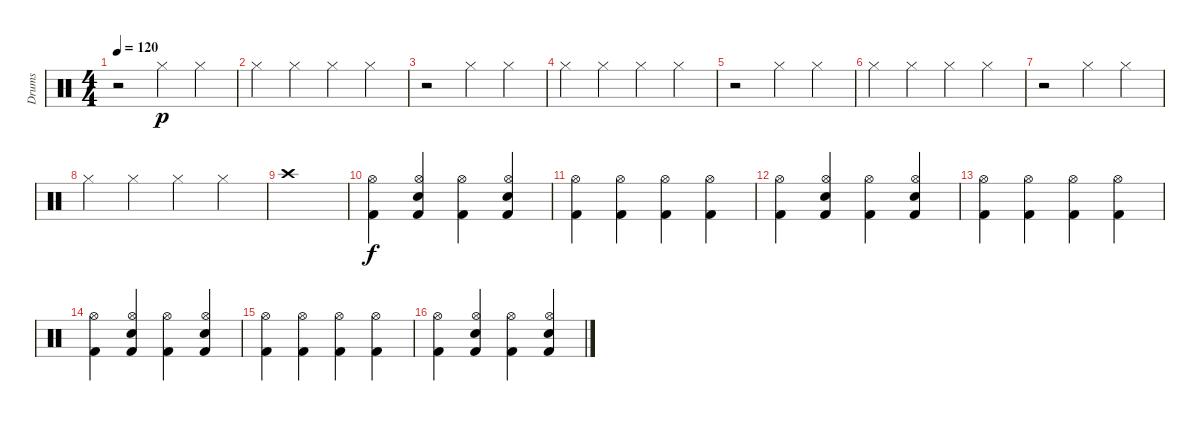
\track ("Drums" "Drums") {instrument percussion}
\staff {score}
\articulation defaults
\ts (4 4)
\tempo 120
\clef neutral
\ks c
r.2{dy p} "Hi-Hat (closed)".4 "Hi-Hat (closed)".4 |
"Hi-Hat (closed)".4 "Hi-Hat (closed)".4 "Hi-Hat (closed)".4 "Hi-Hat (closed)".4 |
r.2 "Hi-Hat (closed)".4 "Hi-Hat (closed)".4 |
"Hi-Hat (closed)".4 "Hi-Hat (closed)".4 "Hi-Hat (closed)".4 "Hi-Hat (closed)".4 |
r.2 "Hi-Hat (closed)".4 "Hi-Hat (closed)".4 |
"Hi-Hat (closed)".4 "Hi-Hat (closed)".4 "Hi-Hat (closed)".4 "Hi-Hat (closed)".4 |
r.2 "Hi-Hat (closed)".4 "Hi-Hat (closed)".4 |
"Hi-Hat (closed)".4 "Hi-Hat (closed)".4 "Hi-Hat (closed)".4 "Hi-Hat (closed)".4 |
"Crash high (hit)".1 |
("Kick (hit) 2" "Hi-Hat (open)").4{dy f} ("Kick (hit) 2" "Hi-Hat (open)" "Electric Snare (hit)").4 ("Kick (hit) 2" "Hi-Hat (open)").4 ("Kick (hit) 2" "Hi-Hat (open)" "Electric Snare (hit)").4 |
("Kick (hit) 2" "Hi-Hat (open)").4 ("Kick (hit) 2" "Hi-Hat (open)").4 ("Kick (hit) 2" "Hi-Hat (open)").4 ("Kick (hit) 2" "Hi-Hat (open)").4 |
("Kick (hit) 2" "Hi-Hat (open)").4 ("Kick (hit) 2" "Hi-Hat (open)" "Electric Snare (hit)").4 ("Kick (hit) 2" "Hi-Hat (open)").4 ("Kick (hit) 2" "Hi-Hat (open)" "Electric Snare (hit)").4 |
("Kick (hit) 2" "Hi-Hat (open)").4 ("Kick (hit) 2" "Hi-Hat (open)").4 ("Kick (hit) 2" "Hi-Hat (open)").4 ("Kick (hit) 2" "Hi-Hat (open)").4 |
("Kick (hit) 2" "Hi-Hat (open)").4 ("Kick (hit) 2" "Hi-Hat (open)" "Electric Snare (hit)").4 ("Kick (hit) 2" "Hi-Hat (open)").4 ("Kick (hit) 2" "Hi-Hat (open)" "Electric Snare (hit)").4 |
("Kick (hit) 2" "Hi-Hat (open)").4 ("Kick (hit) 2" "Hi-Hat (open)").4 ("Kick (hit) 2" "Hi-Hat (open)").4 ("Kick (hit) 2" "Hi-Hat (open)").4 |
("Kick (hit) 2" "Hi-Hat (open)").4 ("Kick (hit) 2" "Hi-Hat (open)" "Electric Snare (hit)").4 ("Kick (hit) 2" "Hi-Hat (open)").4 ("Kick (hit) 2" "Hi-Hat (open)" "Electric Snare (hit)").4
